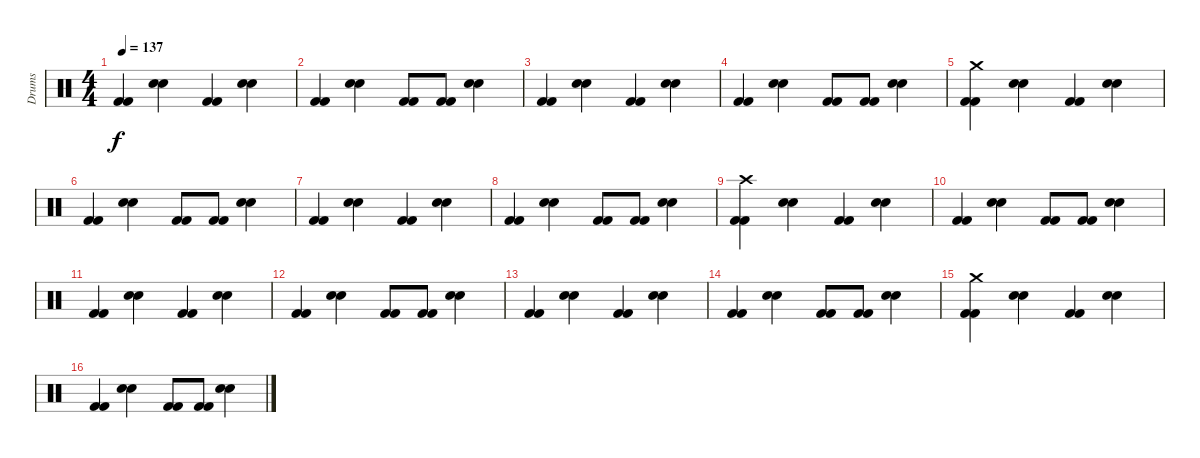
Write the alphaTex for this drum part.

\track ("Drums" "Drums") {instrument percussion}
\staff {score}
\articulation defaults
\ts (4 4)
\tempo 137
\clef neutral
\ks c
("Kick (hit) 2" "Kick (hit) 2").4{dy f} ("Electric Snare (hit)" "Electric Snare (hit)").4 ("Kick (hit) 2" "Kick (hit) 2").4 ("Electric Snare (hit)" "Electric Snare (hit)").4 |
("Kick (hit) 2" "Kick (hit) 2").4 ("Electric Snare (hit)" "Electric Snare (hit)").4 ("Kick (hit) 2" "Kick (hit) 2").8 ("Kick (hit) 2" "Kick (hit) 2").8 ("Electric Snare (hit)" "Electric Snare (hit)").4 |
("Kick (hit) 2" "Kick (hit) 2").4 ("Electric Snare (hit)" "Electric Snare (hit)").4 ("Kick (hit) 2" "Kick (hit) 2").4 ("Electric Snare (hit)" "Electric Snare (hit)").4 |
("Kick (hit) 2" "Kick (hit) 2").4 ("Electric Snare (hit)" "Electric Snare (hit)").4 ("Kick (hit) 2" "Kick (hit) 2").8 ("Kick (hit) 2" "Kick (hit) 2").8 ("Electric Snare (hit)" "Electric Snare (hit)").4 |
("Kick (hit) 2" "Kick (hit) 2" "Crash medium (hit)").4 ("Electric Snare (hit)" "Electric Snare (hit)").4 ("Kick (hit) 2" "Kick (hit) 2").4 ("Electric Snare (hit)" "Electric Snare (hit)").4 |
("Kick (hit) 2" "Kick (hit) 2").4 ("Electric Snare (hit)" "Electric Snare (hit)").4 ("Kick (hit) 2" "Kick (hit) 2").8 ("Kick (hit) 2" "Kick (hit) 2").8 ("Electric Snare (hit)" "Electric Snare (hit)").4 |
("Kick (hit) 2" "Kick (hit) 2").4 ("Electric Snare (hit)" "Electric Snare (hit)").4 ("Kick (hit) 2" "Kick (hit) 2").4 ("Electric Snare (hit)" "Electric Snare (hit)").4 |
("Kick (hit) 2" "Kick (hit) 2").4 ("Electric Snare (hit)" "Electric Snare (hit)").4 ("Kick (hit) 2" "Kick (hit) 2").8 ("Kick (hit) 2" "Kick (hit) 2").8 ("Electric Snare (hit)" "Electric Snare (hit)").4 |
("Kick (hit) 2" "Kick (hit) 2" "Crash high (hit)").4 ("Electric Snare (hit)" "Electric Snare (hit)").4 ("Kick (hit) 2" "Kick (hit) 2").4 ("Electric Snare (hit)" "Electric Snare (hit)").4 |
("Kick (hit) 2" "Kick (hit) 2").4 ("Electric Snare (hit)" "Electric Snare (hit)").4 ("Kick (hit) 2" "Kick (hit) 2").8 ("Kick (hit) 2" "Kick (hit) 2").8 ("Electric Snare (hit)" "Electric Snare (hit)").4 |
("Kick (hit) 2" "Kick (hit) 2").4 ("Electric Snare (hit)" "Electric Snare (hit)").4 ("Kick (hit) 2" "Kick (hit) 2").4 ("Electric Snare (hit)" "Electric Snare (hit)").4 |
("Kick (hit) 2" "Kick (hit) 2").4 ("Electric Snare (hit)" "Electric Snare (hit)").4 ("Kick (hit) 2" "Kick (hit) 2").8 ("Kick (hit) 2" "Kick (hit) 2").8 ("Electric Snare (hit)" "Electric Snare (hit)").4 |
("Kick (hit) 2" "Kick (hit) 2").4 ("Electric Snare (hit)" "Electric Snare (hit)").4 ("Kick (hit) 2" "Kick (hit) 2").4 ("Electric Snare (hit)" "Electric Snare (hit)").4 |
("Kick (hit) 2" "Kick (hit) 2").4 ("Electric Snare (hit)" "Electric Snare (hit)").4 ("Kick (hit) 2" "Kick (hit) 2").8 ("Kick (hit) 2" "Kick (hit) 2").8 ("Electric Snare (hit)" "Electric Snare (hit)").4 |
("Kick (hit) 2" "Kick (hit) 2" "Crash medium (hit)").4 ("Electric Snare (hit)" "Electric Snare (hit)").4 ("Kick (hit) 2" "Kick (hit) 2").4 ("Electric Snare (hit)" "Electric Snare (hit)").4 |
("Kick (hit) 2" "Kick (hit) 2").4 ("Electric Snare (hit)" "Electric Snare (hit)").4 ("Kick (hit) 2" "Kick (hit) 2").8 ("Kick (hit) 2" "Kick (hit) 2").8 ("Electric Snare (hit)" "Electric Snare (hit)").4
